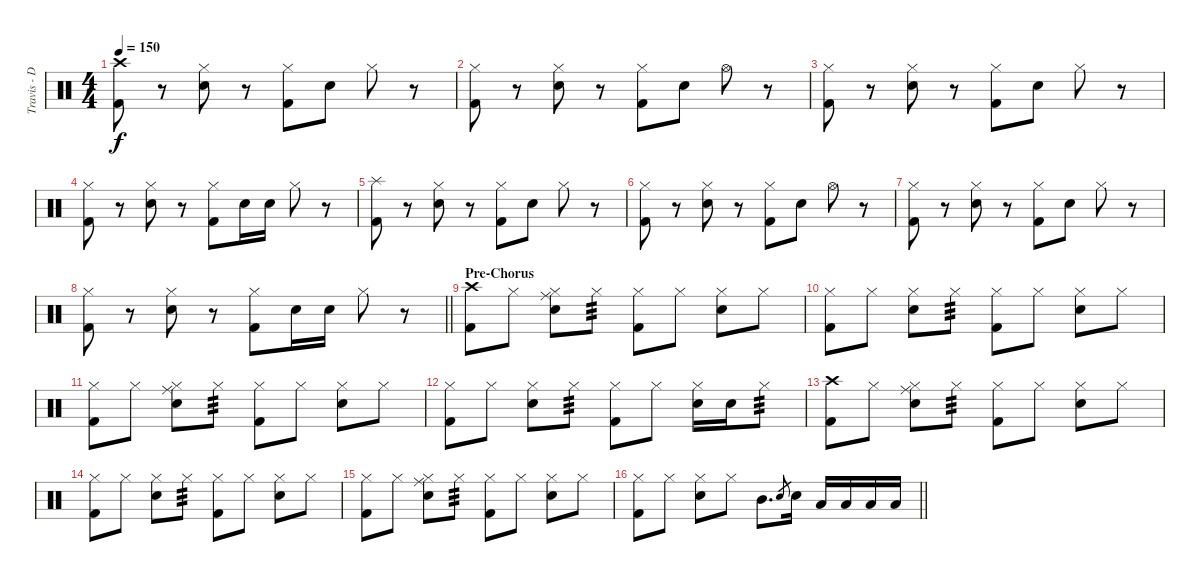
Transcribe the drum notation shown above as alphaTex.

\track ("Travis - Drums" "Travis - D") {instrument percussion}
\staff {score}
\articulation defaults
\ts (4 4)
\tempo 150
\clef neutral
\ks c
("Crash high (hit)" "Kick (hit) 2").8{dy f} r.8 ("Hi-Hat (closed)" "Electric Snare (hit)").8 r.8 ("Hi-Hat (closed)" "Kick (hit) 2").8 "Electric Snare (hit)".8 "Hi-Hat (closed)".8 r.8 |
("Hi-Hat (closed)" "Kick (hit) 2").8 r.8 ("Hi-Hat (closed)" "Electric Snare (hit)").8 r.8 ("Hi-Hat (closed)" "Kick (hit) 2").8 "Electric Snare (hit)".8 "Hi-Hat (open)".8 r.8 |
("Hi-Hat (closed)" "Kick (hit) 2").8 r.8 ("Hi-Hat (closed)" "Electric Snare (hit)").8 r.8 ("Hi-Hat (closed)" "Kick (hit) 2").8 "Electric Snare (hit)".8 "Hi-Hat (closed)".8 r.8 |
("Hi-Hat (closed)" "Kick (hit) 2").8 r.8 ("Hi-Hat (closed)" "Electric Snare (hit)").8 r.8 ("Hi-Hat (closed)" "Kick (hit) 2").8 "Electric Snare (hit)".16 "Electric Snare (hit)".16 "Hi-Hat (closed)".8 r.8 |
("Splash (hit)" "Kick (hit) 2").8 r.8 ("Hi-Hat (closed)" "Electric Snare (hit)").8 r.8 ("Hi-Hat (closed)" "Kick (hit) 2").8 "Electric Snare (hit)".8 "Hi-Hat (closed)".8 r.8 |
("Hi-Hat (closed)" "Kick (hit) 2").8 r.8 ("Hi-Hat (closed)" "Electric Snare (hit)").8 r.8 ("Hi-Hat (closed)" "Kick (hit) 2").8 "Electric Snare (hit)".8 "Hi-Hat (open)".8 r.8 |
("Hi-Hat (closed)" "Kick (hit) 2").8 r.8 ("Hi-Hat (closed)" "Electric Snare (hit)").8 r.8 ("Hi-Hat (closed)" "Kick (hit) 2").8 "Electric Snare (hit)".8 "Hi-Hat (closed)".8 r.8 |
\barLineRight lightlight
("Hi-Hat (closed)" "Kick (hit) 2").8 r.8 ("Hi-Hat (closed)" "Electric Snare (hit)").8 r.8 ("Hi-Hat (closed)" "Kick (hit) 2").8 "Electric Snare (hit)".16 "Electric Snare (hit)".16 "Hi-Hat (closed)".8 r.8 |
\section ("" "Pre-Chorus")
("Crash high (hit)" "Kick (hit) 2").8 "Hi-Hat (closed)".8 ("Hi-Hat (closed)" "Ride (middle)" "Electric Snare (hit)").8 "Hi-Hat (closed)".8{tp 3} ("Hi-Hat (closed)" "Kick (hit) 2").8 "Hi-Hat (closed)".8 ("Hi-Hat (closed)" "Electric Snare (hit)").8 "Hi-Hat (closed)".8 |
("Hi-Hat (closed)" "Kick (hit) 2").8 "Hi-Hat (closed)".8 ("Hi-Hat (closed)" "Electric Snare (hit)").8 "Hi-Hat (closed)".8{tp 3} ("Hi-Hat (closed)" "Kick (hit) 2").8 "Hi-Hat (closed)".8 ("Hi-Hat (closed)" "Electric Snare (hit)").8 "Hi-Hat (closed)".8 |
("Hi-Hat (closed)" "Kick (hit) 2").8 "Hi-Hat (closed)".8 ("Hi-Hat (closed)" "Ride (middle)" "Electric Snare (hit)").8 "Hi-Hat (closed)".8{tp 3} ("Hi-Hat (closed)" "Kick (hit) 2").8 "Hi-Hat (closed)".8 ("Hi-Hat (closed)" "Electric Snare (hit)").8 "Hi-Hat (closed)".8 |
("Hi-Hat (closed)" "Kick (hit) 2").8 "Hi-Hat (closed)".8 ("Hi-Hat (closed)" "Electric Snare (hit)").8 "Hi-Hat (closed)".8{tp 3} ("Hi-Hat (closed)" "Kick (hit) 2").8 "Hi-Hat (closed)".8 ("Hi-Hat (closed)" "Electric Snare (hit)").16 "Electric Snare (hit)".16 "Hi-Hat (closed)".8{tp 3} |
("Crash high (hit)" "Kick (hit) 2").8 "Hi-Hat (closed)".8 ("Hi-Hat (closed)" "Ride (middle)" "Electric Snare (hit)").8 "Hi-Hat (closed)".8{tp 3} ("Hi-Hat (closed)" "Kick (hit) 2").8 "Hi-Hat (closed)".8 ("Hi-Hat (closed)" "Electric Snare (hit)").8 "Hi-Hat (closed)".8 |
("Hi-Hat (closed)" "Kick (hit) 2").8 "Hi-Hat (closed)".8 ("Hi-Hat (closed)" "Electric Snare (hit)").8 "Hi-Hat (closed)".8{tp 3} ("Hi-Hat (closed)" "Kick (hit) 2").8 "Hi-Hat (closed)".8 ("Hi-Hat (closed)" "Electric Snare (hit)").8 "Hi-Hat (closed)".8 |
("Hi-Hat (closed)" "Kick (hit) 2").8 "Hi-Hat (closed)".8 ("Hi-Hat (closed)" "Ride (middle)" "Electric Snare (hit)").8 "Hi-Hat (closed)".8{tp 3} ("Hi-Hat (closed)" "Kick (hit) 2").8 "Hi-Hat (closed)".8 ("Hi-Hat (closed)" "Electric Snare (hit)").8 "Hi-Hat (closed)".8 |
\barLineRight lightlight
("Hi-Hat (closed)" "Kick (hit) 2").8 "Hi-Hat (closed)".8 ("Hi-Hat (closed)" "Electric Snare (hit)").8 "Hi-Hat (closed)".8 "Mid Tom (hit)".8{d} "Electric Snare (hit)".8{gr} "Electric Snare (hit)".16 "Low Tom (hit)".16 "Low Tom (hit)".16 "Low Tom (hit)".16 "Low Tom (hit)".16
